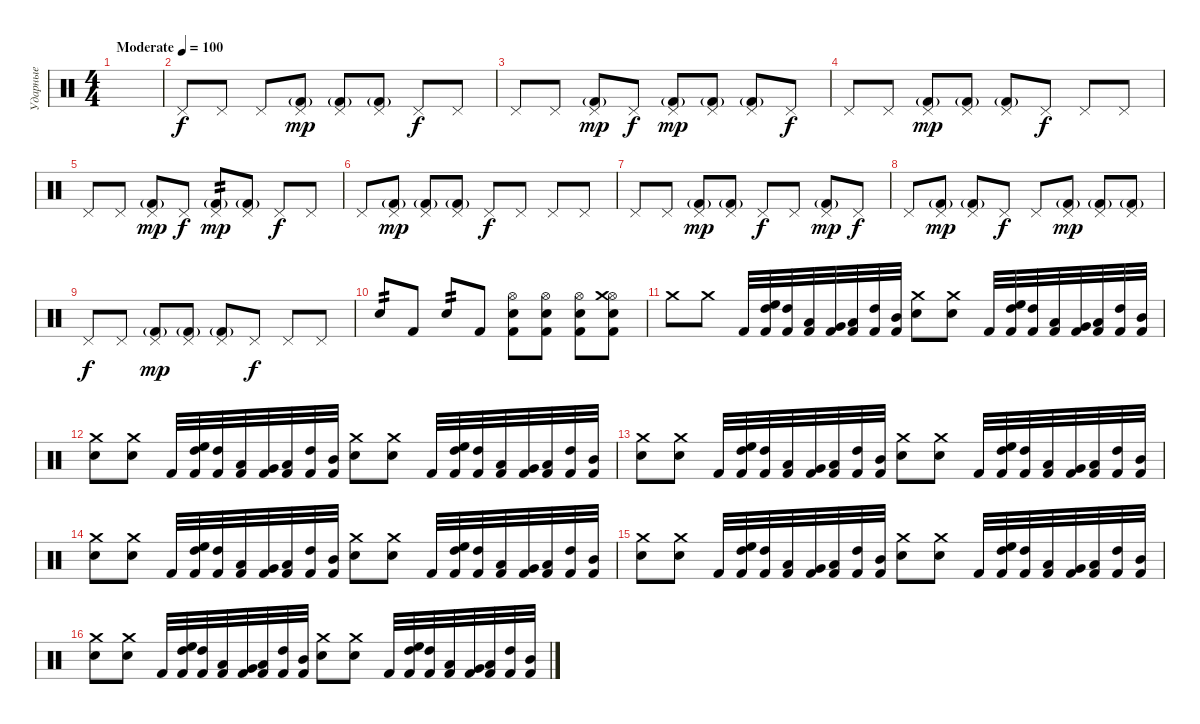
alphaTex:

\track ("Ударные" "Ударные") {instrument percussion}
\staff {score}
\articulation defaults
\ts (4 4)
\tempo (100 "Moderate")
\clef neutral
\ks c
|
"Pedal Hi-Hat (hit)".8 "Pedal Hi-Hat (hit)".8 "Pedal Hi-Hat (hit)".8 ("Pedal Hi-Hat (hit)" "Kick (hit) 2"{g}).8{dy mp} ("Pedal Hi-Hat (hit)" "Kick (hit) 2"{g}).8 ("Pedal Hi-Hat (hit)" "Kick (hit) 2"{g}).8 "Pedal Hi-Hat (hit)".8{dy f} "Pedal Hi-Hat (hit)".8 |
"Pedal Hi-Hat (hit)".8 "Pedal Hi-Hat (hit)".8 ("Pedal Hi-Hat (hit)" "Kick (hit) 2"{g}).8{dy mp} "Pedal Hi-Hat (hit)".8{dy f} ("Pedal Hi-Hat (hit)" "Kick (hit) 2"{g}).8{dy mp} ("Pedal Hi-Hat (hit)" "Kick (hit) 2"{g}).8 ("Pedal Hi-Hat (hit)" "Kick (hit) 2"{g}).8 "Pedal Hi-Hat (hit)".8{dy f} |
"Pedal Hi-Hat (hit)".8 "Pedal Hi-Hat (hit)".8 ("Pedal Hi-Hat (hit)" "Kick (hit) 2"{g}).8{dy mp} ("Pedal Hi-Hat (hit)" "Kick (hit) 2"{g}).8 ("Pedal Hi-Hat (hit)" "Kick (hit) 2"{g}).8 "Pedal Hi-Hat (hit)".8{dy f} "Pedal Hi-Hat (hit)".8 "Pedal Hi-Hat (hit)".8 |
"Pedal Hi-Hat (hit)".8 "Pedal Hi-Hat (hit)".8 ("Pedal Hi-Hat (hit)" "Kick (hit) 2"{g}).8{dy mp} "Pedal Hi-Hat (hit)".8{dy f} ("Pedal Hi-Hat (hit)" "Kick (hit) 2"{g}).8{tp 2 dy mp} ("Pedal Hi-Hat (hit)" "Kick (hit) 2"{g}).8 "Pedal Hi-Hat (hit)".8{dy f} "Pedal Hi-Hat (hit)".8 |
"Pedal Hi-Hat (hit)".8 ("Pedal Hi-Hat (hit)" "Kick (hit) 2"{g}).8{dy mp} ("Pedal Hi-Hat (hit)" "Kick (hit) 2"{g}).8 ("Pedal Hi-Hat (hit)" "Kick (hit) 2"{g}).8 "Pedal Hi-Hat (hit)".8{dy f} "Pedal Hi-Hat (hit)".8 "Pedal Hi-Hat (hit)".8 "Pedal Hi-Hat (hit)".8 |
"Pedal Hi-Hat (hit)".8 "Pedal Hi-Hat (hit)".8 ("Pedal Hi-Hat (hit)" "Kick (hit) 2"{g}).8{dy mp} ("Pedal Hi-Hat (hit)" "Kick (hit) 2"{g}).8 "Pedal Hi-Hat (hit)".8{dy f} "Pedal Hi-Hat (hit)".8 ("Pedal Hi-Hat (hit)" "Kick (hit) 2"{g}).8{dy mp} "Pedal Hi-Hat (hit)".8{dy f} |
"Pedal Hi-Hat (hit)".8 ("Pedal Hi-Hat (hit)" "Kick (hit) 2"{g}).8{dy mp} ("Pedal Hi-Hat (hit)" "Kick (hit) 2"{g}).8 "Pedal Hi-Hat (hit)".8{dy f} "Pedal Hi-Hat (hit)".8 ("Pedal Hi-Hat (hit)" "Kick (hit) 2"{g}).8{dy mp} ("Pedal Hi-Hat (hit)" "Kick (hit) 2"{g}).8 ("Pedal Hi-Hat (hit)" "Kick (hit) 2"{g}).8 |
"Pedal Hi-Hat (hit)".8{dy f} "Pedal Hi-Hat (hit)".8 ("Pedal Hi-Hat (hit)" "Kick (hit) 2"{g}).8{dy mp} ("Pedal Hi-Hat (hit)" "Kick (hit) 2"{g}).8 ("Pedal Hi-Hat (hit)" "Kick (hit) 2"{g}).8 "Pedal Hi-Hat (hit)".8{dy f} "Pedal Hi-Hat (hit)".8 "Pedal Hi-Hat (hit)".8 |
"Snare (hit) 2".8{tp 2} "Kick (hit) 2".8 "Snare (hit) 2".8{tp 2} "Kick (hit) 2".8 ("Kick (hit) 2" "Snare (hit) 2" "Hi-Hat (open)").8 ("Kick (hit) 2" "Snare (hit) 2" "Hi-Hat (open)").8 ("Kick (hit) 2" "Snare (hit) 2" "Hi-Hat (open)").8 ("Kick (hit) 2" "Snare (hit) 2" "Hi-Hat (open)" "Crash medium (hit)").8 |
"Crash medium (hit)".8 "Crash medium (hit)".8 "Kick (hit) 2".32 ("Kick (hit) 2" "High Floor Tom (hit)" "High Tom (hit)").32 ("Kick (hit) 2" "High Tom (hit)").32 ("Kick (hit) 2" "Low Tom (hit)").32 ("Kick (hit) 2" "Very Low Tom (hit)").32 ("Kick (hit) 2" "Low Floor Tom (hit)").32 ("Kick (hit) 2" "High Tom (hit)").32 ("Kick (hit) 2" "Mid Tom (hit)").32 ("Snare (hit) 2" "Crash medium (hit)").8 ("Snare (hit) 2" "Crash medium (hit)").8 "Kick (hit) 2".32 ("Kick (hit) 2" "High Floor Tom (hit)" "High Tom (hit)").32 ("Kick (hit) 2" "High Tom (hit)").32 ("Kick (hit) 2" "Low Tom (hit)").32 ("Kick (hit) 2" "Very Low Tom (hit)").32 ("Kick (hit) 2" "Low Floor Tom (hit)").32 ("Kick (hit) 2" "High Tom (hit)").32 ("Kick (hit) 2" "Mid Tom (hit)").32 |
("Snare (hit) 2" "Crash medium (hit)").8 ("Snare (hit) 2" "Crash medium (hit)").8 "Kick (hit) 2".32 ("Kick (hit) 2" "High Floor Tom (hit)" "High Tom (hit)").32 ("Kick (hit) 2" "High Tom (hit)").32 ("Kick (hit) 2" "Low Tom (hit)").32 ("Kick (hit) 2" "Very Low Tom (hit)").32 ("Kick (hit) 2" "Low Floor Tom (hit)").32 ("Kick (hit) 2" "High Tom (hit)").32 ("Kick (hit) 2" "Mid Tom (hit)").32 ("Snare (hit) 2" "Crash medium (hit)").8 ("Snare (hit) 2" "Crash medium (hit)").8 "Kick (hit) 2".32 ("Kick (hit) 2" "High Floor Tom (hit)" "High Tom (hit)").32 ("Kick (hit) 2" "High Tom (hit)").32 ("Kick (hit) 2" "Low Tom (hit)").32 ("Kick (hit) 2" "Very Low Tom (hit)").32 ("Kick (hit) 2" "Low Floor Tom (hit)").32 ("Kick (hit) 2" "High Tom (hit)").32 ("Kick (hit) 2" "Mid Tom (hit)").32 |
("Snare (hit) 2" "Crash medium (hit)").8 ("Snare (hit) 2" "Crash medium (hit)").8 "Kick (hit) 2".32 ("Kick (hit) 2" "High Floor Tom (hit)" "High Tom (hit)").32 ("Kick (hit) 2" "High Tom (hit)").32 ("Kick (hit) 2" "Low Tom (hit)").32 ("Kick (hit) 2" "Very Low Tom (hit)").32 ("Kick (hit) 2" "Low Floor Tom (hit)").32 ("Kick (hit) 2" "High Tom (hit)").32 ("Kick (hit) 2" "Mid Tom (hit)").32 ("Snare (hit) 2" "Crash medium (hit)").8 ("Snare (hit) 2" "Crash medium (hit)").8 "Kick (hit) 2".32 ("Kick (hit) 2" "High Floor Tom (hit)" "High Tom (hit)").32 ("Kick (hit) 2" "High Tom (hit)").32 ("Kick (hit) 2" "Low Tom (hit)").32 ("Kick (hit) 2" "Very Low Tom (hit)").32 ("Kick (hit) 2" "Low Floor Tom (hit)").32 ("Kick (hit) 2" "High Tom (hit)").32 ("Kick (hit) 2" "Mid Tom (hit)").32 |
("Snare (hit) 2" "Crash medium (hit)").8 ("Snare (hit) 2" "Crash medium (hit)").8 "Kick (hit) 2".32 ("Kick (hit) 2" "High Floor Tom (hit)" "High Tom (hit)").32 ("Kick (hit) 2" "High Tom (hit)").32 ("Kick (hit) 2" "Low Tom (hit)").32 ("Kick (hit) 2" "Very Low Tom (hit)").32 ("Kick (hit) 2" "Low Floor Tom (hit)").32 ("Kick (hit) 2" "High Tom (hit)").32 ("Kick (hit) 2" "Mid Tom (hit)").32 ("Snare (hit) 2" "Crash medium (hit)").8 ("Snare (hit) 2" "Crash medium (hit)").8 "Kick (hit) 2".32 ("Kick (hit) 2" "High Floor Tom (hit)" "High Tom (hit)").32 ("Kick (hit) 2" "High Tom (hit)").32 ("Kick (hit) 2" "Low Tom (hit)").32 ("Kick (hit) 2" "Very Low Tom (hit)").32 ("Kick (hit) 2" "Low Floor Tom (hit)").32 ("Kick (hit) 2" "High Tom (hit)").32 ("Kick (hit) 2" "Mid Tom (hit)").32 |
("Snare (hit) 2" "Crash medium (hit)").8 ("Snare (hit) 2" "Crash medium (hit)").8 "Kick (hit) 2".32 ("Kick (hit) 2" "High Floor Tom (hit)" "High Tom (hit)").32 ("Kick (hit) 2" "High Tom (hit)").32 ("Kick (hit) 2" "Low Tom (hit)").32 ("Kick (hit) 2" "Very Low Tom (hit)").32 ("Kick (hit) 2" "Low Floor Tom (hit)").32 ("Kick (hit) 2" "High Tom (hit)").32 ("Kick (hit) 2" "Mid Tom (hit)").32 ("Snare (hit) 2" "Crash medium (hit)").8 ("Snare (hit) 2" "Crash medium (hit)").8 "Kick (hit) 2".32 ("Kick (hit) 2" "High Floor Tom (hit)" "High Tom (hit)").32 ("Kick (hit) 2" "High Tom (hit)").32 ("Kick (hit) 2" "Low Tom (hit)").32 ("Kick (hit) 2" "Very Low Tom (hit)").32 ("Kick (hit) 2" "Low Floor Tom (hit)").32 ("Kick (hit) 2" "High Tom (hit)").32 ("Kick (hit) 2" "Mid Tom (hit)").32 |
("Snare (hit) 2" "Crash medium (hit)").8 ("Snare (hit) 2" "Crash medium (hit)").8 "Kick (hit) 2".32 ("Kick (hit) 2" "High Floor Tom (hit)" "High Tom (hit)").32 ("Kick (hit) 2" "High Tom (hit)").32 ("Kick (hit) 2" "Low Tom (hit)").32 ("Kick (hit) 2" "Very Low Tom (hit)").32 ("Kick (hit) 2" "Low Floor Tom (hit)").32 ("Kick (hit) 2" "High Tom (hit)").32 ("Kick (hit) 2" "Mid Tom (hit)").32 ("Snare (hit) 2" "Crash medium (hit)").8 ("Snare (hit) 2" "Crash medium (hit)").8 "Kick (hit) 2".32 ("Kick (hit) 2" "High Floor Tom (hit)" "High Tom (hit)").32 ("Kick (hit) 2" "High Tom (hit)").32 ("Kick (hit) 2" "Low Tom (hit)").32 ("Kick (hit) 2" "Very Low Tom (hit)").32 ("Kick (hit) 2" "Low Floor Tom (hit)").32 ("Kick (hit) 2" "High Tom (hit)").32 ("Kick (hit) 2" "Mid Tom (hit)").32
